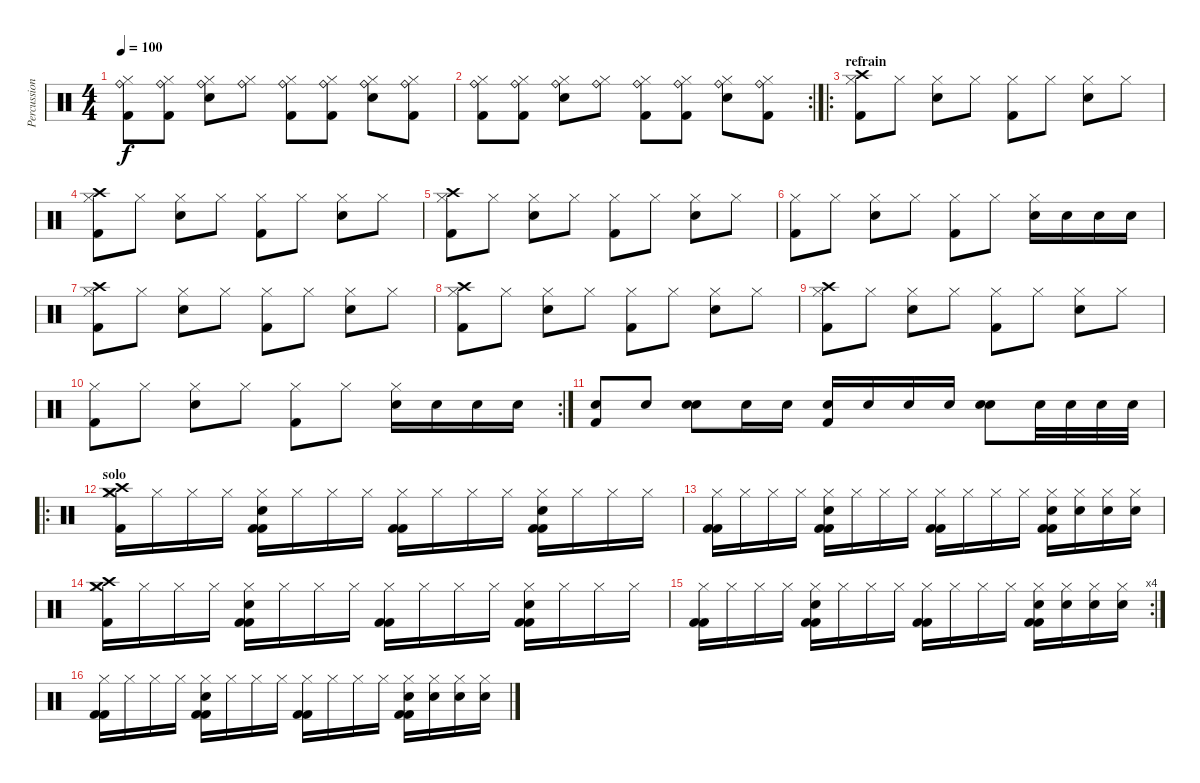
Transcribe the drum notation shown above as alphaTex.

\track ("Percussions" "Percussion") {instrument percussion}
\staff {score}
\articulation defaults
\ts (4 4)
\tempo 100
\clef neutral
\ks c
("Kick (hit) 2" "Hi-Hat (closed)" "Ride (bell)").8{dy f} ("Kick (hit) 2" "Hi-Hat (closed)" "Ride (bell)").8 ("Snare (hit) 2" "Hi-Hat (closed)" "Ride (bell)").8 ("Hi-Hat (closed)" "Ride (bell)").8 ("Kick (hit) 2" "Hi-Hat (closed)" "Ride (bell)").8 ("Kick (hit) 2" "Hi-Hat (closed)" "Ride (bell)").8 ("Snare (hit) 2" "Hi-Hat (closed)" "Ride (bell)").8 ("Kick (hit) 2" "Hi-Hat (closed)" "Ride (bell)").8 |
\rc 2
("Kick (hit) 2" "Hi-Hat (closed)" "Ride (bell)").8 ("Kick (hit) 2" "Hi-Hat (closed)" "Ride (bell)").8 ("Snare (hit) 2" "Hi-Hat (closed)" "Ride (bell)").8 ("Hi-Hat (closed)" "Ride (bell)").8 ("Kick (hit) 2" "Hi-Hat (closed)" "Ride (bell)").8 ("Kick (hit) 2" "Hi-Hat (closed)" "Ride (bell)").8 ("Snare (hit) 2" "Hi-Hat (closed)" "Ride (bell)").8 ("Kick (hit) 2" "Hi-Hat (closed)" "Ride (bell)").8 |
\ro
\section ("" "refrain")
("Hi-Hat (closed)" "Kick (hit) 2" "Crash high (hit)").8 "Hi-Hat (closed)".8 ("Hi-Hat (closed)" "Electric Snare (hit)").8 "Hi-Hat (closed)".8 ("Hi-Hat (closed)" "Kick (hit) 2").8 "Hi-Hat (closed)".8 ("Hi-Hat (closed)" "Electric Snare (hit)").8 "Hi-Hat (closed)".8 |
("Hi-Hat (closed)" "Kick (hit) 2" "Crash high (hit)").8 "Hi-Hat (closed)".8 ("Hi-Hat (closed)" "Electric Snare (hit)").8 "Hi-Hat (closed)".8 ("Hi-Hat (closed)" "Kick (hit) 2").8 "Hi-Hat (closed)".8 ("Hi-Hat (closed)" "Electric Snare (hit)").8 "Hi-Hat (closed)".8 |
("Hi-Hat (closed)" "Kick (hit) 2" "Crash high (hit)").8 "Hi-Hat (closed)".8 ("Hi-Hat (closed)" "Electric Snare (hit)").8 "Hi-Hat (closed)".8 ("Hi-Hat (closed)" "Kick (hit) 2").8 "Hi-Hat (closed)".8 ("Hi-Hat (closed)" "Electric Snare (hit)").8 "Hi-Hat (closed)".8 |
("Hi-Hat (closed)" "Kick (hit) 2").8 "Hi-Hat (closed)".8 ("Hi-Hat (closed)" "Electric Snare (hit)").8 "Hi-Hat (closed)".8 ("Hi-Hat (closed)" "Kick (hit) 2").8 "Hi-Hat (closed)".8 ("Hi-Hat (closed)" "Electric Snare (hit)").16 "Electric Snare (hit)".16 "Electric Snare (hit)".16 "Electric Snare (hit)".16 |
("Hi-Hat (closed)" "Kick (hit) 2" "Crash high (hit)").8 "Hi-Hat (closed)".8 ("Hi-Hat (closed)" "Electric Snare (hit)").8 "Hi-Hat (closed)".8 ("Hi-Hat (closed)" "Kick (hit) 2").8 "Hi-Hat (closed)".8 ("Hi-Hat (closed)" "Electric Snare (hit)").8 "Hi-Hat (closed)".8 |
("Hi-Hat (closed)" "Kick (hit) 2" "Crash high (hit)").8 "Hi-Hat (closed)".8 ("Hi-Hat (closed)" "Electric Snare (hit)").8 "Hi-Hat (closed)".8 ("Hi-Hat (closed)" "Kick (hit) 2").8 "Hi-Hat (closed)".8 ("Hi-Hat (closed)" "Electric Snare (hit)").8 "Hi-Hat (closed)".8 |
("Hi-Hat (closed)" "Kick (hit) 2" "Crash high (hit)").8 "Hi-Hat (closed)".8 ("Hi-Hat (closed)" "Electric Snare (hit)").8 "Hi-Hat (closed)".8 ("Hi-Hat (closed)" "Kick (hit) 2").8 "Hi-Hat (closed)".8 ("Hi-Hat (closed)" "Electric Snare (hit)").8 "Hi-Hat (closed)".8 |
\rc 2
("Hi-Hat (closed)" "Kick (hit) 2").8 "Hi-Hat (closed)".8 ("Hi-Hat (closed)" "Electric Snare (hit)").8 "Hi-Hat (closed)".8 ("Hi-Hat (closed)" "Kick (hit) 2").8 "Hi-Hat (closed)".8 ("Hi-Hat (closed)" "Electric Snare (hit)").16 "Electric Snare (hit)".16 "Electric Snare (hit)".16 "Electric Snare (hit)".16 |
("Kick (hit) 2" "Electric Snare (hit)").8 "Electric Snare (hit)".8 ("Hand Clap (hit)" "Electric Snare (hit)").8 "Electric Snare (hit)".16 "Electric Snare (hit)".16 ("Kick (hit) 2" "Electric Snare (hit)").16 "Electric Snare (hit)".16 "Electric Snare (hit)".16 "Electric Snare (hit)".16 ("Hand Clap (hit)" "Electric Snare (hit)").8 "Electric Snare (hit)".32 "Electric Snare (hit)".32 "Electric Snare (hit)".32 "Electric Snare (hit)".32 |
\ro
\section ("" "solo")
("Crash high (hit)" "Crash medium (hit)" "Kick (hit) 2" "Hi-Hat (closed)").16 "Hi-Hat (closed)".16 "Hi-Hat (closed)".16 "Hi-Hat (closed)".16 ("Kick (hit) 2" "Kick (hit) 2" "Electric Snare (hit)" "Hi-Hat (closed)").16 "Hi-Hat (closed)".16 "Hi-Hat (closed)".16 "Hi-Hat (closed)".16 ("Kick (hit) 2" "Kick (hit) 2" "Hi-Hat (closed)").16 "Hi-Hat (closed)".16 "Hi-Hat (closed)".16 "Hi-Hat (closed)".16 ("Kick (hit) 2" "Kick (hit) 2" "Electric Snare (hit)" "Hi-Hat (closed)").16 "Hi-Hat (closed)".16 "Hi-Hat (closed)".16 "Hi-Hat (closed)".16 |
("Kick (hit) 2" "Kick (hit) 2" "Hi-Hat (closed)").16 "Hi-Hat (closed)".16 "Hi-Hat (closed)".16 "Hi-Hat (closed)".16 ("Kick (hit) 2" "Kick (hit) 2" "Electric Snare (hit)" "Hi-Hat (closed)").16 "Hi-Hat (closed)".16 "Hi-Hat (closed)".16 "Hi-Hat (closed)".16 ("Kick (hit) 2" "Kick (hit) 2" "Hi-Hat (closed)").16 "Hi-Hat (closed)".16 "Hi-Hat (closed)".16 "Hi-Hat (closed)".16 ("Kick (hit) 2" "Kick (hit) 2" "Electric Snare (hit)" "Hi-Hat (closed)").16 ("Electric Snare (hit)" "Hi-Hat (closed)").16 ("Electric Snare (hit)" "Hi-Hat (closed)").16 ("Electric Snare (hit)" "Hi-Hat (closed)").16 |
("Crash high (hit)" "Crash medium (hit)" "Kick (hit) 2" "Hi-Hat (closed)").16 "Hi-Hat (closed)".16 "Hi-Hat (closed)".16 "Hi-Hat (closed)".16 ("Kick (hit) 2" "Kick (hit) 2" "Electric Snare (hit)" "Hi-Hat (closed)").16 "Hi-Hat (closed)".16 "Hi-Hat (closed)".16 "Hi-Hat (closed)".16 ("Kick (hit) 2" "Kick (hit) 2" "Hi-Hat (closed)").16 "Hi-Hat (closed)".16 "Hi-Hat (closed)".16 "Hi-Hat (closed)".16 ("Kick (hit) 2" "Kick (hit) 2" "Electric Snare (hit)" "Hi-Hat (closed)").16 "Hi-Hat (closed)".16 "Hi-Hat (closed)".16 "Hi-Hat (closed)".16 |
\rc 4
("Kick (hit) 2" "Kick (hit) 2" "Hi-Hat (closed)").16 "Hi-Hat (closed)".16 "Hi-Hat (closed)".16 "Hi-Hat (closed)".16 ("Kick (hit) 2" "Kick (hit) 2" "Electric Snare (hit)" "Hi-Hat (closed)").16 "Hi-Hat (closed)".16 "Hi-Hat (closed)".16 "Hi-Hat (closed)".16 ("Kick (hit) 2" "Kick (hit) 2" "Hi-Hat (closed)").16 "Hi-Hat (closed)".16 "Hi-Hat (closed)".16 "Hi-Hat (closed)".16 ("Kick (hit) 2" "Kick (hit) 2" "Electric Snare (hit)" "Hi-Hat (closed)").16 ("Electric Snare (hit)" "Hi-Hat (closed)").16 ("Electric Snare (hit)" "Hi-Hat (closed)").16 ("Electric Snare (hit)" "Hi-Hat (closed)").16 |
("Kick (hit) 2" "Kick (hit) 2" "Hi-Hat (closed)").16 "Hi-Hat (closed)".16 "Hi-Hat (closed)".16 "Hi-Hat (closed)".16 ("Kick (hit) 2" "Kick (hit) 2" "Electric Snare (hit)" "Hi-Hat (closed)").16 "Hi-Hat (closed)".16 "Hi-Hat (closed)".16 "Hi-Hat (closed)".16 ("Kick (hit) 2" "Kick (hit) 2" "Hi-Hat (closed)").16 "Hi-Hat (closed)".16 "Hi-Hat (closed)".16 "Hi-Hat (closed)".16 ("Kick (hit) 2" "Kick (hit) 2" "Electric Snare (hit)" "Hi-Hat (closed)").16 ("Electric Snare (hit)" "Hi-Hat (closed)").16 ("Electric Snare (hit)" "Hi-Hat (closed)").16 ("Electric Snare (hit)" "Hi-Hat (closed)").16
